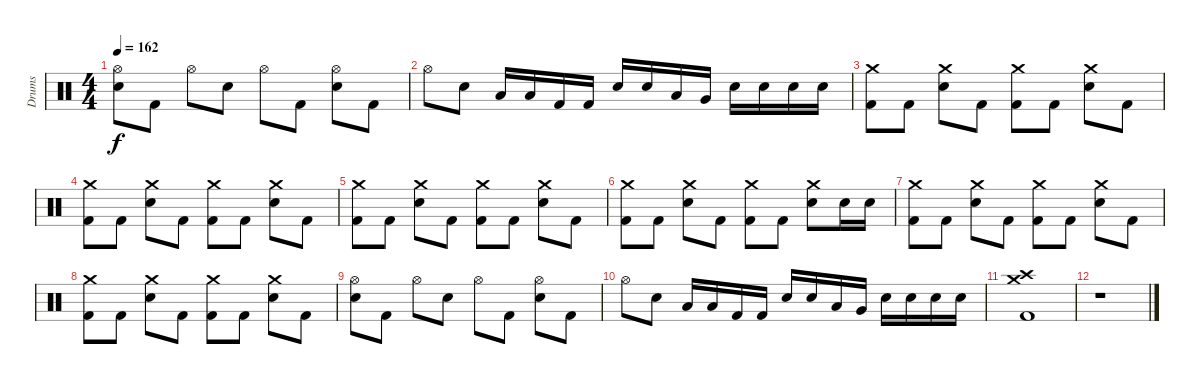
\track ("Drums" "Drums") {instrument percussion}
\staff {score}
\articulation defaults
\ts (4 4)
\tempo 162
\clef neutral
\ks c
("Hi-Hat (open)" "Electric Snare (hit)").8{dy f} "Kick (hit) 2".8 "Hi-Hat (open)".8 "Electric Snare (hit)".8 "Hi-Hat (open)".8 "Kick (hit) 2".8 ("Hi-Hat (open)" "Electric Snare (hit)").8 "Kick (hit) 2".8 |
"Hi-Hat (open)".8 "Electric Snare (hit)".8 "Low Tom (hit)".16 "Low Tom (hit)".16 "Kick (hit) 2".16 "Kick (hit) 2".16 "Electric Snare (hit)".16 "Electric Snare (hit)".16 "Low Tom (hit)".16 "Very Low Tom (hit)".16 "Electric Snare (hit)".16 "Electric Snare (hit)".16 "Electric Snare (hit)".16 "Electric Snare (hit)".16 |
("Crash medium (hit)" "Kick (hit) 2").8 "Kick (hit) 2".8 ("Crash medium (hit)" "Electric Snare (hit)").8 "Kick (hit) 2".8 ("Crash medium (hit)" "Kick (hit) 2").8 "Kick (hit) 2".8 ("Crash medium (hit)" "Electric Snare (hit)").8 "Kick (hit) 2".8 |
("Crash medium (hit)" "Kick (hit) 2").8 "Kick (hit) 2".8 ("Crash medium (hit)" "Electric Snare (hit)").8 "Kick (hit) 2".8 ("Crash medium (hit)" "Kick (hit) 2").8 "Kick (hit) 2".8 ("Crash medium (hit)" "Electric Snare (hit)").8 "Kick (hit) 2".8 |
("Crash medium (hit)" "Kick (hit) 2").8 "Kick (hit) 2".8 ("Crash medium (hit)" "Electric Snare (hit)").8 "Kick (hit) 2".8 ("Crash medium (hit)" "Kick (hit) 2").8 "Kick (hit) 2".8 ("Crash medium (hit)" "Electric Snare (hit)").8 "Kick (hit) 2".8 |
("Crash medium (hit)" "Kick (hit) 2").8 "Kick (hit) 2".8 ("Crash medium (hit)" "Electric Snare (hit)").8 "Kick (hit) 2".8 ("Crash medium (hit)" "Kick (hit) 2").8 "Kick (hit) 2".8 ("Crash medium (hit)" "Electric Snare (hit)").8 "Electric Snare (hit)".16 "Electric Snare (hit)".16 |
("Crash medium (hit)" "Kick (hit) 2").8 "Kick (hit) 2".8 ("Crash medium (hit)" "Electric Snare (hit)").8 "Kick (hit) 2".8 ("Crash medium (hit)" "Kick (hit) 2").8 "Kick (hit) 2".8 ("Crash medium (hit)" "Electric Snare (hit)").8 "Kick (hit) 2".8 |
("Crash medium (hit)" "Kick (hit) 2").8 "Kick (hit) 2".8 ("Crash medium (hit)" "Electric Snare (hit)").8 "Kick (hit) 2".8 ("Crash medium (hit)" "Kick (hit) 2").8 "Kick (hit) 2".8 ("Crash medium (hit)" "Electric Snare (hit)").8 "Kick (hit) 2".8 |
("Hi-Hat (open)" "Electric Snare (hit)").8 "Kick (hit) 2".8 "Hi-Hat (open)".8 "Electric Snare (hit)".8 "Hi-Hat (open)".8 "Kick (hit) 2".8 ("Hi-Hat (open)" "Electric Snare (hit)").8 "Kick (hit) 2".8 |
"Hi-Hat (open)".8 "Electric Snare (hit)".8 "Low Tom (hit)".16 "Low Tom (hit)".16 "Kick (hit) 2".16 "Kick (hit) 2".16 "Electric Snare (hit)".16 "Electric Snare (hit)".16 "Low Tom (hit)".16 "Very Low Tom (hit)".16 "Electric Snare (hit)".16 "Electric Snare (hit)".16 "Electric Snare (hit)".16 "Electric Snare (hit)".16 |
("Crash medium (hit)" "Crash high (hit)" "Kick (hit) 2").1 |
r.1
